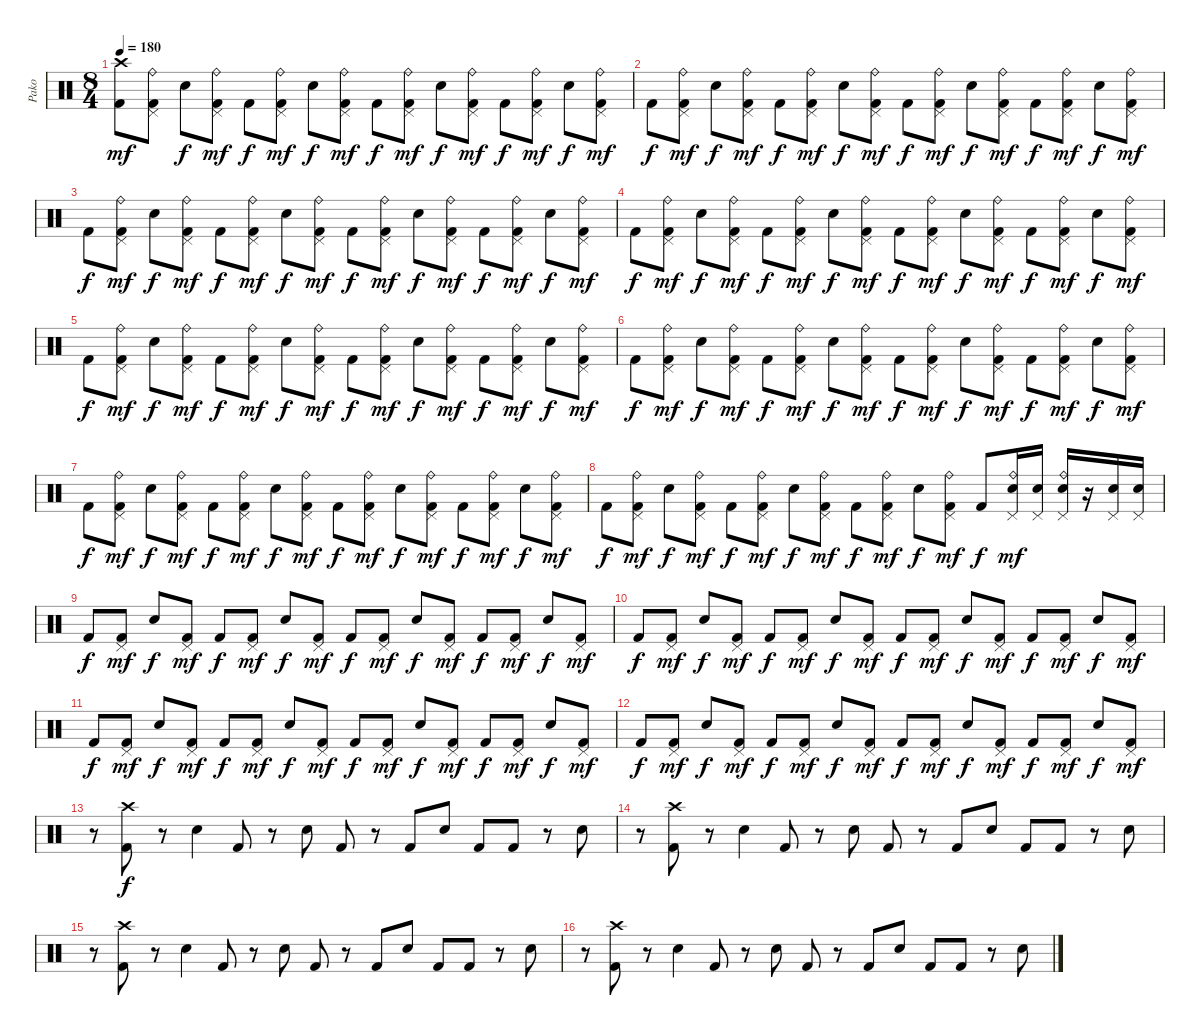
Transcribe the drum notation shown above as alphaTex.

\track ("Pako" "Pako") {instrument percussion}
\staff {score}
\articulation defaults
\ts (8 4)
\tempo 180
\clef neutral
\ks c
("Crash high (hit)" "Kick (hit) 2").8{dy mf} ("Pedal Hi-Hat (hit)" "Ride (bell)" "Kick (hit) 2").8 "Electric Snare (hit)".8{dy f} ("Pedal Hi-Hat (hit)" "Ride (bell)" "Kick (hit) 2").8{dy mf} "Kick (hit) 2".8{dy f} ("Pedal Hi-Hat (hit)" "Ride (bell)" "Kick (hit) 2").8{dy mf} "Electric Snare (hit)".8{dy f} ("Pedal Hi-Hat (hit)" "Ride (bell)" "Kick (hit) 2").8{dy mf} "Kick (hit) 2".8{dy f} ("Pedal Hi-Hat (hit)" "Ride (bell)" "Kick (hit) 2").8{dy mf} "Electric Snare (hit)".8{dy f} ("Pedal Hi-Hat (hit)" "Ride (bell)" "Kick (hit) 2").8{dy mf} "Kick (hit) 2".8{dy f} ("Pedal Hi-Hat (hit)" "Ride (bell)" "Kick (hit) 2").8{dy mf} "Electric Snare (hit)".8{dy f} ("Pedal Hi-Hat (hit)" "Ride (bell)" "Kick (hit) 2").8{dy mf} |
"Kick (hit) 2".8{dy f} ("Pedal Hi-Hat (hit)" "Ride (bell)" "Kick (hit) 2").8{dy mf} "Electric Snare (hit)".8{dy f} ("Pedal Hi-Hat (hit)" "Ride (bell)" "Kick (hit) 2").8{dy mf} "Kick (hit) 2".8{dy f} ("Pedal Hi-Hat (hit)" "Ride (bell)" "Kick (hit) 2").8{dy mf} "Electric Snare (hit)".8{dy f} ("Pedal Hi-Hat (hit)" "Ride (bell)" "Kick (hit) 2").8{dy mf} "Kick (hit) 2".8{dy f} ("Pedal Hi-Hat (hit)" "Ride (bell)" "Kick (hit) 2").8{dy mf} "Electric Snare (hit)".8{dy f} ("Pedal Hi-Hat (hit)" "Ride (bell)" "Kick (hit) 2").8{dy mf} "Kick (hit) 2".8{dy f} ("Pedal Hi-Hat (hit)" "Ride (bell)" "Kick (hit) 2").8{dy mf} "Electric Snare (hit)".8{dy f} ("Pedal Hi-Hat (hit)" "Ride (bell)" "Kick (hit) 2").8{dy mf} |
"Kick (hit) 2".8{dy f} ("Pedal Hi-Hat (hit)" "Ride (bell)" "Kick (hit) 2").8{dy mf} "Electric Snare (hit)".8{dy f} ("Pedal Hi-Hat (hit)" "Ride (bell)" "Kick (hit) 2").8{dy mf} "Kick (hit) 2".8{dy f} ("Pedal Hi-Hat (hit)" "Ride (bell)" "Kick (hit) 2").8{dy mf} "Electric Snare (hit)".8{dy f} ("Pedal Hi-Hat (hit)" "Ride (bell)" "Kick (hit) 2").8{dy mf} "Kick (hit) 2".8{dy f} ("Pedal Hi-Hat (hit)" "Ride (bell)" "Kick (hit) 2").8{dy mf} "Electric Snare (hit)".8{dy f} ("Pedal Hi-Hat (hit)" "Ride (bell)" "Kick (hit) 2").8{dy mf} "Kick (hit) 2".8{dy f} ("Pedal Hi-Hat (hit)" "Ride (bell)" "Kick (hit) 2").8{dy mf} "Electric Snare (hit)".8{dy f} ("Pedal Hi-Hat (hit)" "Ride (bell)" "Kick (hit) 2").8{dy mf} |
"Kick (hit) 2".8{dy f} ("Pedal Hi-Hat (hit)" "Ride (bell)" "Kick (hit) 2").8{dy mf} "Electric Snare (hit)".8{dy f} ("Pedal Hi-Hat (hit)" "Ride (bell)" "Kick (hit) 2").8{dy mf} "Kick (hit) 2".8{dy f} ("Pedal Hi-Hat (hit)" "Ride (bell)" "Kick (hit) 2").8{dy mf} "Electric Snare (hit)".8{dy f} ("Pedal Hi-Hat (hit)" "Ride (bell)" "Kick (hit) 2").8{dy mf} "Kick (hit) 2".8{dy f} ("Pedal Hi-Hat (hit)" "Ride (bell)" "Kick (hit) 2").8{dy mf} "Electric Snare (hit)".8{dy f} ("Pedal Hi-Hat (hit)" "Ride (bell)" "Kick (hit) 2").8{dy mf} "Kick (hit) 2".8{dy f} ("Pedal Hi-Hat (hit)" "Ride (bell)" "Kick (hit) 2").8{dy mf} "Electric Snare (hit)".8{dy f} ("Pedal Hi-Hat (hit)" "Ride (bell)" "Kick (hit) 2").8{dy mf} |
"Kick (hit) 2".8{dy f} ("Pedal Hi-Hat (hit)" "Ride (bell)" "Kick (hit) 2").8{dy mf} "Electric Snare (hit)".8{dy f} ("Pedal Hi-Hat (hit)" "Ride (bell)" "Kick (hit) 2").8{dy mf} "Kick (hit) 2".8{dy f} ("Pedal Hi-Hat (hit)" "Ride (bell)" "Kick (hit) 2").8{dy mf} "Electric Snare (hit)".8{dy f} ("Pedal Hi-Hat (hit)" "Ride (bell)" "Kick (hit) 2").8{dy mf} "Kick (hit) 2".8{dy f} ("Pedal Hi-Hat (hit)" "Ride (bell)" "Kick (hit) 2").8{dy mf} "Electric Snare (hit)".8{dy f} ("Pedal Hi-Hat (hit)" "Ride (bell)" "Kick (hit) 2").8{dy mf} "Kick (hit) 2".8{dy f} ("Pedal Hi-Hat (hit)" "Ride (bell)" "Kick (hit) 2").8{dy mf} "Electric Snare (hit)".8{dy f} ("Pedal Hi-Hat (hit)" "Ride (bell)" "Kick (hit) 2").8{dy mf} |
"Kick (hit) 2".8{dy f} ("Pedal Hi-Hat (hit)" "Ride (bell)" "Kick (hit) 2").8{dy mf} "Electric Snare (hit)".8{dy f} ("Pedal Hi-Hat (hit)" "Ride (bell)" "Kick (hit) 2").8{dy mf} "Kick (hit) 2".8{dy f} ("Pedal Hi-Hat (hit)" "Ride (bell)" "Kick (hit) 2").8{dy mf} "Electric Snare (hit)".8{dy f} ("Pedal Hi-Hat (hit)" "Ride (bell)" "Kick (hit) 2").8{dy mf} "Kick (hit) 2".8{dy f} ("Pedal Hi-Hat (hit)" "Ride (bell)" "Kick (hit) 2").8{dy mf} "Electric Snare (hit)".8{dy f} ("Pedal Hi-Hat (hit)" "Ride (bell)" "Kick (hit) 2").8{dy mf} "Kick (hit) 2".8{dy f} ("Pedal Hi-Hat (hit)" "Ride (bell)" "Kick (hit) 2").8{dy mf} "Electric Snare (hit)".8{dy f} ("Pedal Hi-Hat (hit)" "Ride (bell)" "Kick (hit) 2").8{dy mf} |
"Kick (hit) 2".8{dy f} ("Pedal Hi-Hat (hit)" "Ride (bell)" "Kick (hit) 2").8{dy mf} "Electric Snare (hit)".8{dy f} ("Pedal Hi-Hat (hit)" "Ride (bell)" "Kick (hit) 2").8{dy mf} "Kick (hit) 2".8{dy f} ("Pedal Hi-Hat (hit)" "Ride (bell)" "Kick (hit) 2").8{dy mf} "Electric Snare (hit)".8{dy f} ("Pedal Hi-Hat (hit)" "Ride (bell)" "Kick (hit) 2").8{dy mf} "Kick (hit) 2".8{dy f} ("Pedal Hi-Hat (hit)" "Ride (bell)" "Kick (hit) 2").8{dy mf} "Electric Snare (hit)".8{dy f} ("Pedal Hi-Hat (hit)" "Ride (bell)" "Kick (hit) 2").8{dy mf} "Kick (hit) 2".8{dy f} ("Pedal Hi-Hat (hit)" "Ride (bell)" "Kick (hit) 2").8{dy mf} "Electric Snare (hit)".8{dy f} ("Pedal Hi-Hat (hit)" "Ride (bell)" "Kick (hit) 2").8{dy mf} |
"Kick (hit) 2".8{dy f} ("Pedal Hi-Hat (hit)" "Ride (bell)" "Kick (hit) 2").8{dy mf} "Electric Snare (hit)".8{dy f} ("Pedal Hi-Hat (hit)" "Ride (bell)" "Kick (hit) 2").8{dy mf} "Kick (hit) 2".8{dy f} ("Pedal Hi-Hat (hit)" "Ride (bell)" "Kick (hit) 2").8{dy mf} "Electric Snare (hit)".8{dy f} ("Pedal Hi-Hat (hit)" "Ride (bell)" "Kick (hit) 2").8{dy mf} "Kick (hit) 2".8{dy f} ("Pedal Hi-Hat (hit)" "Ride (bell)" "Kick (hit) 2").8{dy mf} "Electric Snare (hit)".8{dy f} ("Pedal Hi-Hat (hit)" "Ride (bell)" "Kick (hit) 2").8{dy mf} "Kick (hit) 2".8{dy f} ("Ride (bell)" "Electric Snare (hit)" "Pedal Hi-Hat (hit)").16{dy mf} ("Electric Snare (hit)" "Pedal Hi-Hat (hit)").16 ("Ride (bell)" "Electric Snare (hit)" "Pedal Hi-Hat (hit)").16 r.16 ("Electric Snare (hit)" "Pedal Hi-Hat (hit)").16 ("Electric Snare (hit)" "Pedal Hi-Hat (hit)").16 |
"Kick (hit) 2".8{dy f} ("Pedal Hi-Hat (hit)" "Kick (hit) 2").8{dy mf} "Electric Snare (hit)".8{dy f} ("Pedal Hi-Hat (hit)" "Kick (hit) 2").8{dy mf} "Kick (hit) 2".8{dy f} ("Pedal Hi-Hat (hit)" "Kick (hit) 2").8{dy mf} "Electric Snare (hit)".8{dy f} ("Pedal Hi-Hat (hit)" "Kick (hit) 2").8{dy mf} "Kick (hit) 2".8{dy f} ("Pedal Hi-Hat (hit)" "Kick (hit) 2").8{dy mf} "Electric Snare (hit)".8{dy f} ("Pedal Hi-Hat (hit)" "Kick (hit) 2").8{dy mf} "Kick (hit) 2".8{dy f} ("Pedal Hi-Hat (hit)" "Kick (hit) 2").8{dy mf} "Electric Snare (hit)".8{dy f} ("Pedal Hi-Hat (hit)" "Kick (hit) 2").8{dy mf} |
"Kick (hit) 2".8{dy f} ("Pedal Hi-Hat (hit)" "Kick (hit) 2").8{dy mf} "Electric Snare (hit)".8{dy f} ("Pedal Hi-Hat (hit)" "Kick (hit) 2").8{dy mf} "Kick (hit) 2".8{dy f} ("Pedal Hi-Hat (hit)" "Kick (hit) 2").8{dy mf} "Electric Snare (hit)".8{dy f} ("Pedal Hi-Hat (hit)" "Kick (hit) 2").8{dy mf} "Kick (hit) 2".8{dy f} ("Pedal Hi-Hat (hit)" "Kick (hit) 2").8{dy mf} "Electric Snare (hit)".8{dy f} ("Pedal Hi-Hat (hit)" "Kick (hit) 2").8{dy mf} "Kick (hit) 2".8{dy f} ("Pedal Hi-Hat (hit)" "Kick (hit) 2").8{dy mf} "Electric Snare (hit)".8{dy f} ("Pedal Hi-Hat (hit)" "Kick (hit) 2").8{dy mf} |
"Kick (hit) 2".8{dy f} ("Pedal Hi-Hat (hit)" "Kick (hit) 2").8{dy mf} "Electric Snare (hit)".8{dy f} ("Pedal Hi-Hat (hit)" "Kick (hit) 2").8{dy mf} "Kick (hit) 2".8{dy f} ("Pedal Hi-Hat (hit)" "Kick (hit) 2").8{dy mf} "Electric Snare (hit)".8{dy f} ("Pedal Hi-Hat (hit)" "Kick (hit) 2").8{dy mf} "Kick (hit) 2".8{dy f} ("Pedal Hi-Hat (hit)" "Kick (hit) 2").8{dy mf} "Electric Snare (hit)".8{dy f} ("Pedal Hi-Hat (hit)" "Kick (hit) 2").8{dy mf} "Kick (hit) 2".8{dy f} ("Pedal Hi-Hat (hit)" "Kick (hit) 2").8{dy mf} "Electric Snare (hit)".8{dy f} ("Pedal Hi-Hat (hit)" "Kick (hit) 2").8{dy mf} |
"Kick (hit) 2".8{dy f} ("Pedal Hi-Hat (hit)" "Kick (hit) 2").8{dy mf} "Electric Snare (hit)".8{dy f} ("Pedal Hi-Hat (hit)" "Kick (hit) 2").8{dy mf} "Kick (hit) 2".8{dy f} ("Pedal Hi-Hat (hit)" "Kick (hit) 2").8{dy mf} "Electric Snare (hit)".8{dy f} ("Pedal Hi-Hat (hit)" "Kick (hit) 2").8{dy mf} "Kick (hit) 2".8{dy f} ("Pedal Hi-Hat (hit)" "Kick (hit) 2").8{dy mf} "Electric Snare (hit)".8{dy f} ("Pedal Hi-Hat (hit)" "Kick (hit) 2").8{dy mf} "Kick (hit) 2".8{dy f} ("Pedal Hi-Hat (hit)" "Kick (hit) 2").8{dy mf} "Electric Snare (hit)".8{dy f} ("Pedal Hi-Hat (hit)" "Kick (hit) 2").8{dy mf} |
r.8 ("Kick (hit) 2" "Crash high (hit)").8{dy f} r.8 "Electric Snare (hit)".4 "Kick (hit) 2".8 r.8 "Electric Snare (hit)".8 "Kick (hit) 2".8 r.8 "Kick (hit) 2".8 "Electric Snare (hit)".8 "Kick (hit) 2".8 "Kick (hit) 2".8 r.8 "Electric Snare (hit)".8 |
r.8 ("Kick (hit) 2" "Crash high (hit)").8 r.8 "Electric Snare (hit)".4 "Kick (hit) 2".8 r.8 "Electric Snare (hit)".8 "Kick (hit) 2".8 r.8 "Kick (hit) 2".8 "Electric Snare (hit)".8 "Kick (hit) 2".8 "Kick (hit) 2".8 r.8 "Electric Snare (hit)".8 |
r.8 ("Kick (hit) 2" "Crash high (hit)").8 r.8 "Electric Snare (hit)".4 "Kick (hit) 2".8 r.8 "Electric Snare (hit)".8 "Kick (hit) 2".8 r.8 "Kick (hit) 2".8 "Electric Snare (hit)".8 "Kick (hit) 2".8 "Kick (hit) 2".8 r.8 "Electric Snare (hit)".8 |
r.8 ("Kick (hit) 2" "Crash high (hit)").8 r.8 "Electric Snare (hit)".4 "Kick (hit) 2".8 r.8 "Electric Snare (hit)".8 "Kick (hit) 2".8 r.8 "Kick (hit) 2".8 "Electric Snare (hit)".8 "Kick (hit) 2".8 "Kick (hit) 2".8 r.8 "Electric Snare (hit)".8
